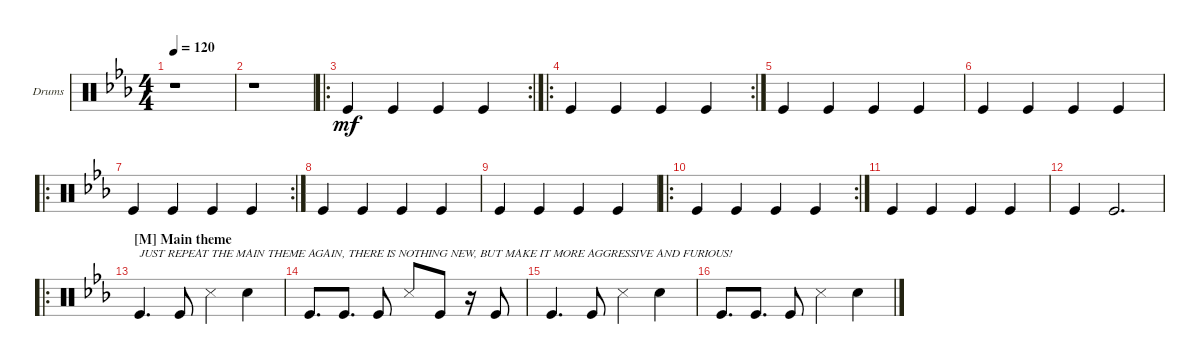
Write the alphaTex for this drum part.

\defaultSystemsLayout 4
\bracketExtendMode groupsimilarinstruments
\firstSystemTrackNameOrientation horizontal
\otherSystemsTrackNameOrientation horizontal
\track ("Percussion" "Drums") {instrument percussion}
\staff {score}
\articulation defaults
\ts (4 4)
\tempo 120
\clef neutral
\ks eb
r.1{dy mf} |
r.1 |
\ro
\rc 2 "Kick (hit)".4 "Kick (hit)".4 "Kick (hit)".4 "Kick (hit)".4
|
\ro
\rc 2 "Kick (hit)".4 "Kick (hit)".4 "Kick (hit)".4 "Kick (hit)".4
|
"Kick (hit)".4 "Kick (hit)".4 "Kick (hit)".4 "Kick (hit)".4 |
"Kick (hit)".4 "Kick (hit)".4 "Kick (hit)".4 "Kick (hit)".4 |
\ro
\rc 2 "Kick (hit)".4 "Kick (hit)".4 "Kick (hit)".4 "Kick (hit)".4
|
"Kick (hit)".4 "Kick (hit)".4 "Kick (hit)".4 "Kick (hit)".4 |
"Kick (hit)".4 "Kick (hit)".4 "Kick (hit)".4 "Kick (hit)".4 |
\ro
\rc 2 "Kick (hit)".4 "Kick (hit)".4 "Kick (hit)".4 "Kick (hit)".4
|
"Kick (hit)".4 "Kick (hit)".4 "Kick (hit)".4 "Kick (hit)".4 |
"Kick (hit)".4 "Kick (hit)".2{d} |
\ro
\section ("M" "Main theme")
"Kick (hit)".4{d txt "JUST REPEAT THE MAIN THEME AGAIN, THERE IS NOTHING NEW, BUT MAKE IT MORE AGGRESSIVE AND FURIOUS!"} "Kick (hit)".8 "Snare (side stick) 3".4 "Snare (hit) 2".4 |
"Kick (hit)".8{d} "Kick (hit)".8{d} "Kick (hit)".8 "Snare (side stick) 3".8 "Kick (hit)".8 r.16 "Kick (hit)".8 |
"Kick (hit)".4{d} "Kick (hit)".8 "Snare (side stick) 3".4 "Snare (hit) 2".4 |
"Kick (hit)".8{d} "Kick (hit)".8{d} "Kick (hit)".8 "Snare (side stick) 3".4 "Snare (hit) 2".4
